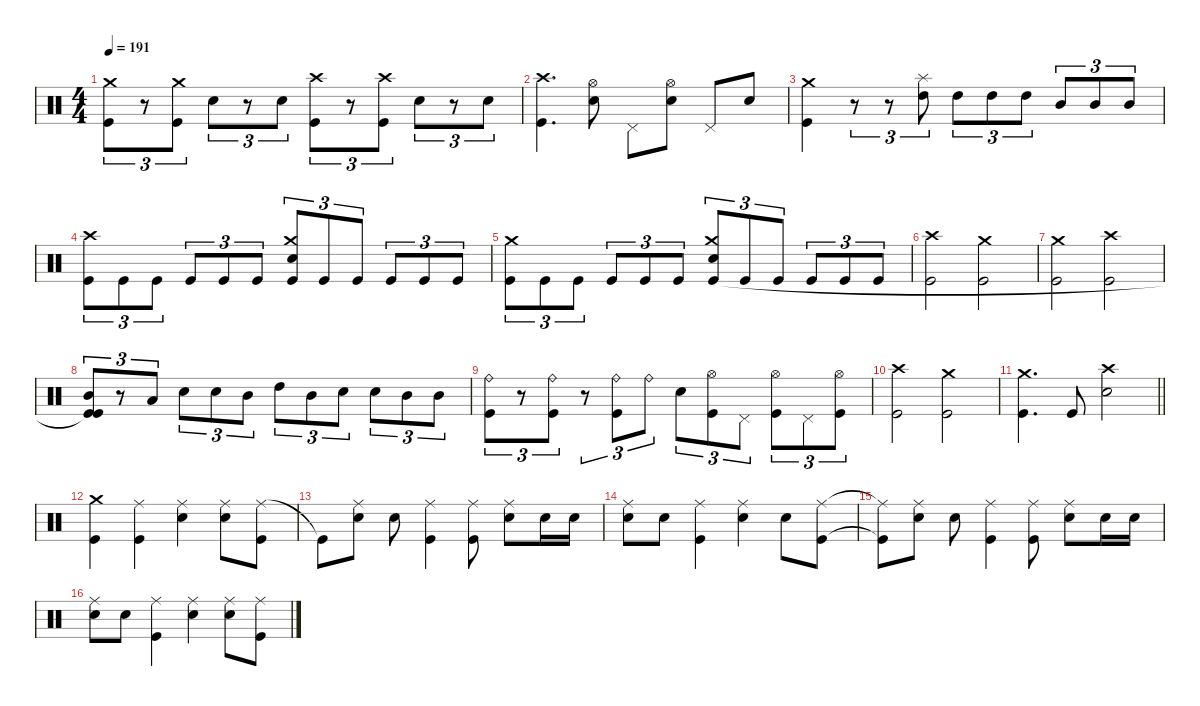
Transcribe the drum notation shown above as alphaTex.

\defaultSystemsLayout 4
\hideDynamics
\bracketExtendMode nobrackets
\singleTrackTrackNamePolicy hidden
\multiTrackTrackNamePolicy hidden
\firstSystemTrackNameMode fullname
\firstSystemTrackNameOrientation horizontal
\otherSystemsTrackNameOrientation horizontal
\track ("Drumkit" "drm.") {instrument percussion}
\staff {score}
\articulation defaults
\ts (4 4)
\tempo 191
\clef neutral
\ks c
("Crash medium (hit)" "Kick (hit)").8{tu (3 2) dy mf beam Down} r.8{tu (3 2) beam Down} ("Crash medium (hit)" "Kick (hit)").8{tu (3 2) beam Down} "Snare (hit) 2".8{tu (3 2) beam Down} r.8{tu (3 2) beam Down} "Snare (hit) 2".8{tu (3 2) beam Down} ("Crash high (hit)" "Kick (hit)").8{tu (3 2) beam Down} r.8{tu (3 2) beam Down} ("Crash high (hit)" "Kick (hit)").8{tu (3 2) beam Down} "Snare (hit) 2".8{tu (3 2) beam Down} r.8{tu (3 2) beam Down} "Snare (hit) 2".8{tu (3 2) beam Down} |
("Crash high (hit)" "Kick (hit)").4{d beam Down} ("Hi-Hat (open)" "Snare (hit) 2").8{beam Down} "Pedal Hi-Hat (hit)".8{beam Down} ("Hi-Hat (open)" "Snare (hit) 2").8{beam Down} "Pedal Hi-Hat (hit)".8{beam Up} "Snare (hit) 2".8{beam Up} |
("Crash medium (hit)" "Kick (hit)").4{beam Down} r.8{tu (3 2) beam Down} r.8{tu (3 2) beam Down} ("Splash (hit)" "High Tom (hit)").8{tu (3 2) dy f beam Down} "High Tom (hit)".8{tu (3 2) dy mf beam Down} "High Tom (hit)".8{tu (3 2) beam Down} "High Tom (hit)".8{tu (3 2) beam Down} "Mid Tom (hit)".8{tu (3 2) beam Up} "Mid Tom (hit)".8{tu (3 2) beam Up} "Mid Tom (hit)".8{tu (3 2) beam Up} |
("Kick (hit)" "Crash high (hit)").8{tu (3 2) dy ff beam Down} "Kick (hit)".8{tu (3 2) dy f beam Down} "Kick (hit)".8{tu (3 2) beam Down} "Kick (hit)".8{tu (3 2) beam Up} "Kick (hit)".8{tu (3 2) beam Up} "Kick (hit)".8{tu (3 2) beam Up} ("Snare (hit) 2" "Crash medium (hit)" "Kick (hit)").8{tu (3 2) beam Up} "Kick (hit)".8{tu (3 2) beam Up} "Kick (hit)".8{tu (3 2) beam Up} "Kick (hit)".8{tu (3 2) beam Up} "Kick (hit)".8{tu (3 2) beam Up} "Kick (hit)".8{tu (3 2) beam Up} |
("Kick (hit)" "Crash medium (hit)").8{tu (3 2) dy ff beam Down} "Kick (hit)".8{tu (3 2) dy f beam Down} "Kick (hit)".8{tu (3 2) beam Down} "Kick (hit)".8{tu (3 2) beam Up} "Kick (hit)".8{tu (3 2) beam Up} "Kick (hit)".8{tu (3 2) beam Up} ("Snare (hit) 2" "Crash medium (hit)" "Kick (hit)").8{tu (3 2) beam Up} "Kick (hit)".8{tu (3 2) beam Up} "Kick (hit)".8{tu (3 2) beam Up} "Kick (hit)".8{tu (3 2) beam Up} "Kick (hit)".8{tu (3 2) beam Up} "Kick (hit)".8{tu (3 2) beam Up} |
("Kick (hit)" "Crash high (hit)").2{beam Down} ("Crash medium (hit)" "Kick (hit)").2{beam Down} |
("Kick (hit)" "Crash medium (hit)").2{beam Down} ("Crash high (hit)" "Kick (hit)").2{beam Down} |
("Kick (hit)" "Mid Tom (hit)" "Kick (hit)"{t}).8{tu (3 2) dy ff beam Up} r.8{tu (3 2) beam Up} "Low Tom (hit)".8{tu (3 2) beam Up} "Snare (hit) 2".8{tu (3 2) dy mf beam Down} "Snare (hit) 2".8{tu (3 2) dy mp beam Down} "Mid Tom (hit)".8{tu (3 2) dy ff beam Down} "High Tom (hit)".8{tu (3 2) beam Down} "Mid Tom (hit)".8{tu (3 2) beam Down} "Snare (hit) 2".8{tu (3 2) beam Down} "Snare (hit) 2".8{tu (3 2) beam Down} "Mid Tom (hit)".8{tu (3 2) beam Down} "Mid Tom (hit)".8{tu (3 2) beam Down} |
("Ride (bell)" "Kick (hit)").8{tu (3 2) dy f beam Down} r.8{tu (3 2) beam Down} ("Ride (bell)" "Kick (hit)").8{tu (3 2) beam Down} r.8{tu (3 2) beam Down} ("Ride (bell)" "Kick (hit)").8{tu (3 2) dy mp beam Down} "Ride (bell)".8{tu (3 2) beam Down} "Snare (hit) 2".8{tu (3 2) beam Down} ("Hi-Hat (open)" "Kick (hit)").8{tu (3 2) beam Down} "Pedal Hi-Hat (hit)".8{tu (3 2) beam Down} ("Hi-Hat (open)" "Kick (hit)").8{tu (3 2) beam Down} "Pedal Hi-Hat (hit)".8{tu (3 2) beam Down} ("Hi-Hat (open)" "Kick (hit)").8{tu (3 2) beam Down} |
("Kick (hit)" "Crash high (hit)").2{dy f beam Down} ("Crash medium (hit)" "Kick (hit)").2{beam Down} |
\barLineRight lightlight
("Kick (hit)" "Crash medium (hit)").4{d beam Down} "Kick (hit)".8{beam Up} ("Crash high (hit)" "Snare (hit) 2").2{beam Down} |
("Crash medium (hit)" "Kick (hit)").4{beam Down} ("Ride (middle)" "Kick (hit)").4{dy mp beam Down} ("Ride (middle)" "Snare (hit) 2").4{beam Down} ("Ride (middle)" "Snare (hit) 2").8{dy f beam Down} ("Ride (middle)" "Kick (hit)").8{beam Down} |
"Kick (hit)"{t}.8{beam Down} ("Ride (middle)" "Snare (hit) 2").8{beam Down} "Snare (hit) 2".8{beam Down} ("Ride (middle)" "Kick (hit)").4{beam Down} ("Ride (middle)" "Kick (hit)").8{beam Down} ("Ride (middle)" "Snare (hit) 2").8{beam Down} "Snare (hit) 2".16{dy mp beam Down} "Snare (hit) 2".16{beam Down} |
("Ride (middle)" "Snare (hit) 2").8{dy f beam Down} "Snare (hit) 2".8{dy mf beam Down} ("Ride (middle)" "Kick (hit)").4{dy f beam Down} ("Ride (middle)" "Snare (hit) 2").4{beam Down} "Snare (hit) 2".8{dy mf beam Down} ("Ride (middle)" "Kick (hit)").8{beam Down} |
("Ride (middle)"{t} "Kick (hit)"{t}).8{beam Down} ("Ride (middle)" "Snare (hit) 2").8{dy f beam Down} "Snare (hit) 2".8{beam Down} ("Kick (hit)" "Ride (middle)").4{beam Down} ("Ride (middle)" "Kick (hit)").8{beam Down} ("Ride (middle)" "Snare (hit) 2").8{beam Down} "Snare (hit) 2".16{dy mp beam Down} "Snare (hit) 2".16{beam Down} |
("Ride (middle)" "Snare (hit) 2").8{dy f beam Down} "Snare (hit) 2".8{dy mf beam Down} ("Ride (middle)" "Kick (hit)").4{dy f beam Down} ("Ride (middle)" "Snare (hit) 2").4{beam Down} ("Ride (middle)" "Snare (hit) 2").8{beam Down} ("Ride (middle)" "Kick (hit)").8{beam Down}
